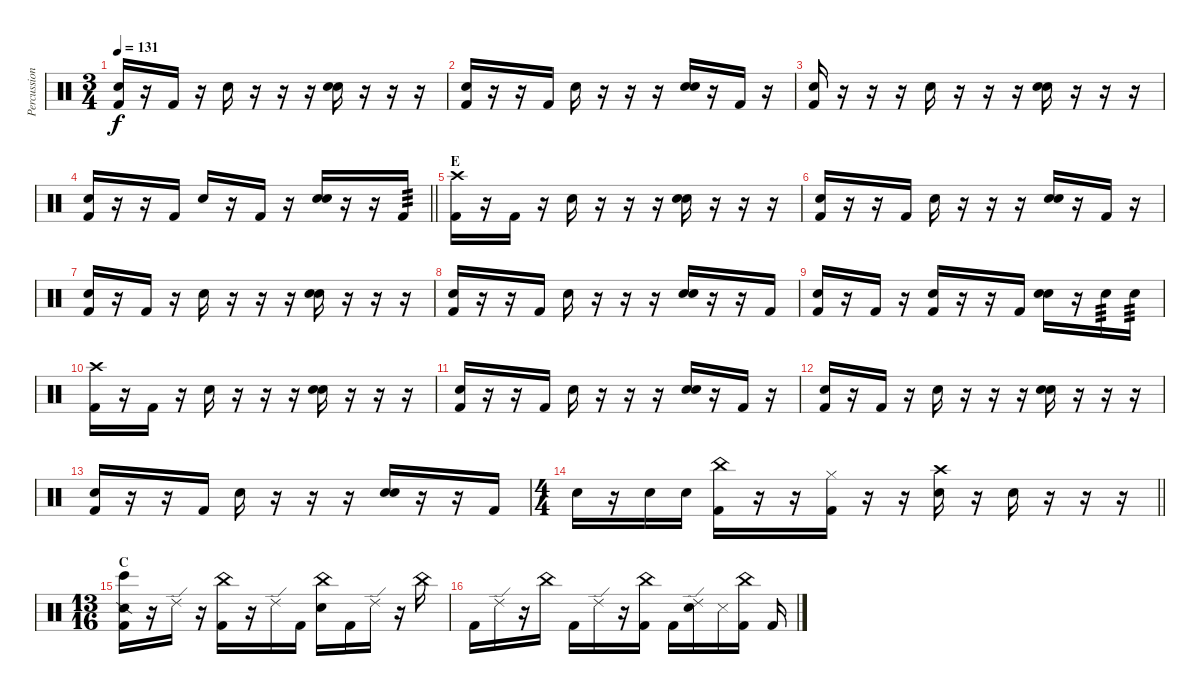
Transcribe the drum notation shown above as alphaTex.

\track ("Percussion" "Percussion") {instrument percussion}
\staff {score}
\articulation defaults
\ts (3 4)
\tempo 131
\clef neutral
\ks c
("Snare (hit)" "Kick (hit) 2").16{dy f} r.16 "Kick (hit) 2".16 r.16 "Snare (hit)".16 r.16 r.16 r.16 ("Snare (hit)" "Snare (hit) 2").16 r.16 r.16 r.16 |
("Snare (hit)" "Kick (hit) 2").16 r.16 r.16 "Kick (hit) 2".16 "Snare (hit)".16 r.16 r.16 r.16 ("Snare (hit)" "Snare (hit) 2").16 r.16 "Kick (hit) 2".16 r.16 |
("Snare (hit)" "Kick (hit) 2").16 r.16 r.16 r.16 "Snare (hit)".16 r.16 r.16 r.16 ("Snare (hit)" "Snare (hit) 2").16 r.16 r.16 r.16 |
\barLineRight lightlight
("Snare (hit)" "Kick (hit) 2").16 r.16 r.16 "Kick (hit) 2".16 "Snare (hit)".16 r.16 "Kick (hit) 2".16 r.16 ("Snare (hit)" "Snare (hit) 2").16 r.16 r.16 "Kick (hit) 2".16{tp 3} |
\section ("" "E")
("Crash high (hit)" "Kick (hit) 2").16 r.16 "Kick (hit) 2".16 r.16 "Snare (hit)".16 r.16 r.16 r.16 ("Snare (hit)" "Snare (hit) 2").16 r.16 r.16 r.16 |
("Snare (hit)" "Kick (hit) 2").16 r.16 r.16 "Kick (hit) 2".16 "Snare (hit)".16 r.16 r.16 r.16 ("Snare (hit)" "Snare (hit) 2").16 r.16 "Kick (hit) 2".16 r.16 |
("Snare (hit)" "Kick (hit) 2").16 r.16 "Kick (hit) 2".16 r.16 "Snare (hit)".16 r.16 r.16 r.16 ("Snare (hit)" "Snare (hit) 2").16 r.16 r.16 r.16 |
("Snare (hit)" "Kick (hit) 2").16 r.16 r.16 "Kick (hit) 2".16 "Snare (hit)".16 r.16 r.16 r.16 ("Snare (hit)" "Snare (hit) 2").16 r.16 r.16 "Kick (hit) 2".16 |
("Snare (hit)" "Kick (hit) 2").16 r.16 "Kick (hit) 2".16 r.16 ("Snare (hit)" "Kick (hit) 2").16 r.16 r.16 "Kick (hit) 2".16 ("Snare (hit)" "Snare (hit) 2").16 r.16 "Snare (hit) 2".16{tp 3} "Snare (hit) 2".16{tp 3} |
("Crash high (hit)" "Kick (hit) 2").16 r.16 "Kick (hit) 2".16 r.16 "Snare (hit)".16 r.16 r.16 r.16 ("Snare (hit)" "Snare (hit) 2").16 r.16 r.16 r.16 |
("Snare (hit)" "Kick (hit) 2").16 r.16 r.16 "Kick (hit) 2".16 "Snare (hit)".16 r.16 r.16 r.16 ("Snare (hit)" "Snare (hit) 2").16 r.16 "Kick (hit) 2".16 r.16 |
("Snare (hit)" "Kick (hit) 2").16 r.16 "Kick (hit) 2".16 r.16 "Snare (hit)".16 r.16 r.16 r.16 ("Snare (hit)" "Snare (hit) 2").16 r.16 r.16 r.16 |
("Snare (hit)" "Kick (hit) 2").16 r.16 r.16 "Kick (hit) 2".16 "Snare (hit)".16 r.16 r.16 r.16 ("Snare (hit)" "Snare (hit) 2").16 r.16 r.16 "Kick (hit) 2".16 |
\ts (4 4)
\barLineRight lightlight "Snare (hit)".16
r.16 "Snare (hit) 2".16 "Snare (hit) 2".16 ("China (hit)" "Kick (hit) 2").16 r.16 r.16 ("Hi-Hat (closed)" "Kick (hit) 2").16 r.16 r.16 ("Crash high (hit)" "Snare (hit) 2").16 r.16 "Snare (hit)".16 r.16 r.16 r.16 |
\ts (13 16)
\section ("" "C")
("Snare (side stick) 2" "Bongo High (hit)" "Kick (hit) 2").16 r.16 "Ride (edge) 2".16 r.16 ("China (hit)" "Kick (hit) 2").16 r.16 "Ride (edge) 2".16 "Kick (hit) 2".16 ("China (hit)" "Snare (hit) 2").16 "Kick (hit) 2".16 "Ride (edge) 2".16 r.16 "China (hit)".16 |
"Kick (hit) 2".16 "Ride (edge) 2".16 r.16 "China (hit)".16 "Kick (hit) 2".16 "Ride (edge) 2".16 r.16 ("China (hit)" "Kick (hit) 2").16 "Kick (hit) 2".16 ("Ride (edge) 2" "Snare (hit) 2").16 "Metronome (hit)".16 ("China (hit)" "Kick (hit) 2").16 "Kick (hit) 2".16
